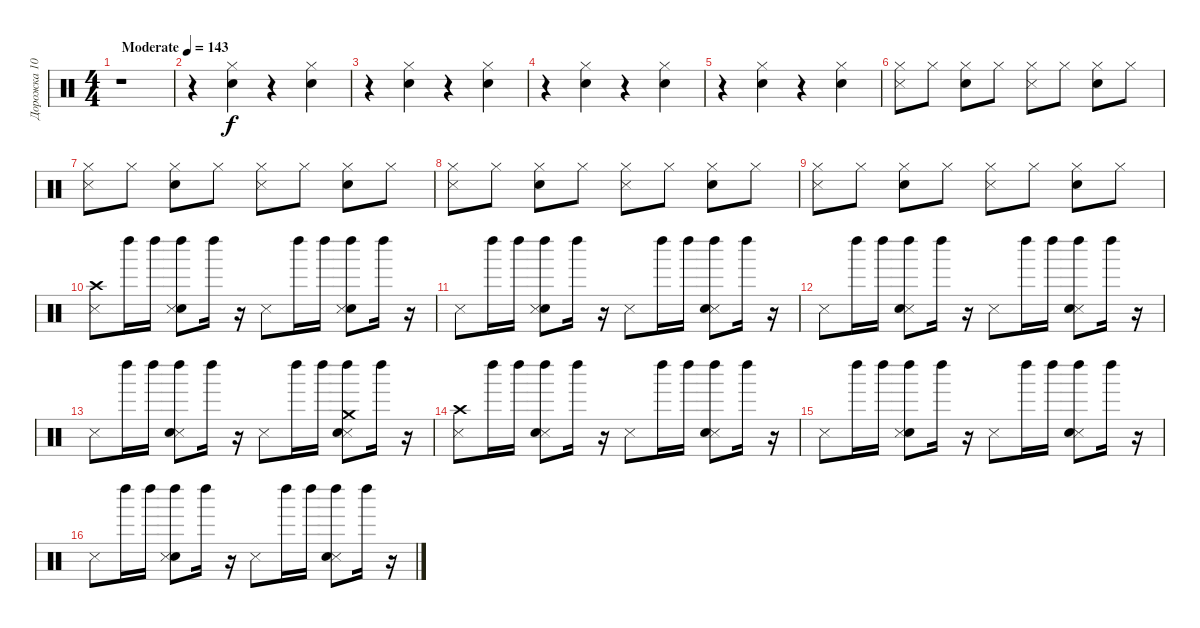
\track ("Дорожка 10" "Дорожка 10") {instrument percussion}
\staff {score}
\articulation defaults
\ts (4 4)
\tempo (143 "Moderate")
\clef neutral
\ks c
r.1{dy f} |
r.4 ("Electric Snare (hit)" "Hi-Hat (closed)").4 r.4 ("Electric Snare (hit)" "Hi-Hat (closed)").4 |
r.4 ("Electric Snare (hit)" "Hi-Hat (closed)").4 r.4 ("Electric Snare (hit)" "Hi-Hat (closed)").4 |
r.4 ("Electric Snare (hit)" "Hi-Hat (closed)").4 r.4 ("Electric Snare (hit)" "Hi-Hat (closed)").4 |
r.4 ("Electric Snare (hit)" "Hi-Hat (closed)").4 r.4 ("Electric Snare (hit)" "Hi-Hat (closed)").4 |
("Metronome (hit)" "Hi-Hat (closed)").8 "Hi-Hat (closed)".8 ("Electric Snare (hit)" "Hi-Hat (closed)").8 "Hi-Hat (closed)".8 ("Metronome (hit)" "Hi-Hat (closed)").8 "Hi-Hat (closed)".8 ("Electric Snare (hit)" "Hi-Hat (closed)").8 "Hi-Hat (closed)".8 |
("Metronome (hit)" "Hi-Hat (closed)").8 "Hi-Hat (closed)".8 ("Electric Snare (hit)" "Hi-Hat (closed)").8 "Hi-Hat (closed)".8 ("Metronome (hit)" "Hi-Hat (closed)").8 "Hi-Hat (closed)".8 ("Electric Snare (hit)" "Hi-Hat (closed)").8 "Hi-Hat (closed)".8 |
("Metronome (hit)" "Hi-Hat (closed)").8 "Hi-Hat (closed)".8 ("Electric Snare (hit)" "Hi-Hat (closed)").8 "Hi-Hat (closed)".8 ("Metronome (hit)" "Hi-Hat (closed)").8 "Hi-Hat (closed)".8 ("Electric Snare (hit)" "Hi-Hat (closed)").8 "Hi-Hat (closed)".8 |
("Metronome (hit)" "Hi-Hat (closed)").8 "Hi-Hat (closed)".8 ("Electric Snare (hit)" "Hi-Hat (closed)").8 "Hi-Hat (closed)".8 ("Metronome (hit)" "Hi-Hat (closed)").8 "Hi-Hat (closed)".8 ("Electric Snare (hit)" "Hi-Hat (closed)").8 "Hi-Hat (closed)".8 |
("Metronome (hit)" "Crash high (hit)").8 "Left Maraca (hit)".16 "Left Maraca (hit)".16 ("Electric Snare (hit)" "Metronome (hit)" "Left Maraca (hit)").8 "Left Maraca (hit)".16 r.16 "Metronome (hit)".8 "Left Maraca (hit)".16 "Left Maraca (hit)".16 ("Electric Snare (hit)" "Metronome (hit)" "Left Maraca (hit)").8 "Left Maraca (hit)".16 r.16 |
"Metronome (hit)".8 "Left Maraca (hit)".16 "Left Maraca (hit)".16 ("Electric Snare (hit)" "Metronome (hit)" "Left Maraca (hit)").8 "Left Maraca (hit)".16 r.16 "Metronome (hit)".8 "Left Maraca (hit)".16 "Left Maraca (hit)".16 ("Metronome (hit)" "Electric Snare (hit)" "Left Maraca (hit)").8 "Left Maraca (hit)".16 r.16 |
"Metronome (hit)".8 "Left Maraca (hit)".16 "Left Maraca (hit)".16 ("Metronome (hit)" "Electric Snare (hit)" "Left Maraca (hit)").8 "Left Maraca (hit)".16 r.16 "Metronome (hit)".8 "Left Maraca (hit)".16 "Left Maraca (hit)".16 ("Metronome (hit)" "Electric Snare (hit)" "Left Maraca (hit)").8 "Left Maraca (hit)".16 r.16 |
"Metronome (hit)".8 "Left Maraca (hit)".16 "Left Maraca (hit)".16 ("Metronome (hit)" "Electric Snare (hit)" "Left Maraca (hit)").8 "Left Maraca (hit)".16 r.16 "Metronome (hit)".8 "Left Maraca (hit)".16 "Left Maraca (hit)".16 ("Metronome (hit)" "Electric Snare (hit)" "Crash medium (hit)" "Left Maraca (hit)").8 "Left Maraca (hit)".16 r.16 |
("Metronome (hit)" "Crash high (hit)").8 "Left Maraca (hit)".16 "Left Maraca (hit)".16 ("Metronome (hit)" "Electric Snare (hit)" "Left Maraca (hit)").8 "Left Maraca (hit)".16 r.16 "Metronome (hit)".8 "Left Maraca (hit)".16 "Left Maraca (hit)".16 ("Metronome (hit)" "Electric Snare (hit)" "Left Maraca (hit)").8 "Left Maraca (hit)".16 r.16 |
"Metronome (hit)".8 "Left Maraca (hit)".16 "Left Maraca (hit)".16 ("Electric Snare (hit)" "Metronome (hit)" "Left Maraca (hit)").8 "Left Maraca (hit)".16 r.16 "Metronome (hit)".8 "Left Maraca (hit)".16 "Left Maraca (hit)".16 ("Metronome (hit)" "Electric Snare (hit)" "Left Maraca (hit)").8 "Left Maraca (hit)".16 r.16 |
"Metronome (hit)".8 "Left Maraca (hit)".16 "Left Maraca (hit)".16 ("Electric Snare (hit)" "Metronome (hit)" "Left Maraca (hit)").8 "Left Maraca (hit)".16 r.16 "Metronome (hit)".8 "Left Maraca (hit)".16 "Left Maraca (hit)".16 ("Metronome (hit)" "Electric Snare (hit)" "Left Maraca (hit)").8 "Left Maraca (hit)".16 r.16
